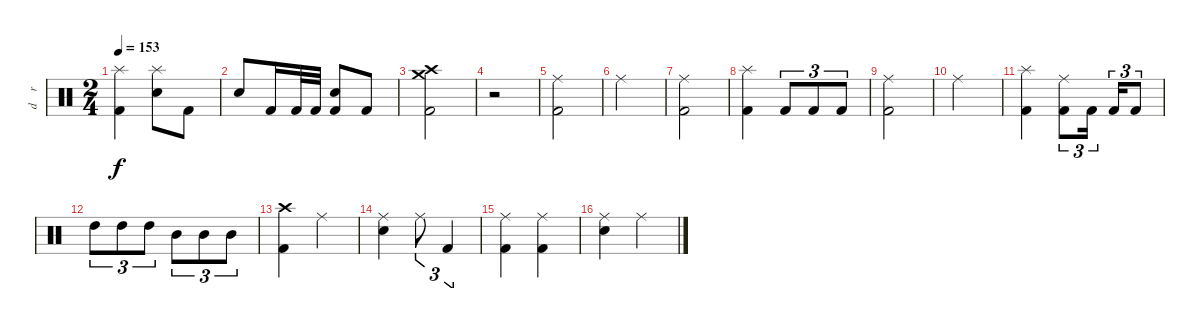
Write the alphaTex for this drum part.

\track ("d    r     u    m    s" "d    r    ") {instrument percussion}
\staff {score}
\articulation defaults
\ts (2 4)
\tempo 153
\clef neutral
\ks c
("Splash (hit)" "Kick (hit) 2").4{dy f} ("Splash (hit)" "Electric Snare (hit)").8 "Kick (hit) 2".8 |
"Electric Snare (hit)".8 "Kick (hit) 2".16 "Kick (hit) 2".32 "Kick (hit) 2".32 ("Electric Snare (hit)" "Kick (hit) 2").8 "Kick (hit) 2".8 |
("Crash high (hit)" "Crash medium (hit)" "Kick (hit) 2").2 |
r.2 |
("Ride (middle)" "Kick (hit) 2").2 |
"Ride (middle)".2 |
("Ride (middle)" "Kick (hit) 2").2 |
("Splash (hit)" "Kick (hit) 2").4 "Kick (hit) 2".8{tu (3 2)} "Kick (hit) 2".8{tu (3 2)} "Kick (hit) 2".8{tu (3 2)} |
("Ride (middle)" "Kick (hit) 2").2 |
"Ride (middle)".2 |
("Splash (hit)" "Kick (hit) 2").4 ("Ride (middle)" "Kick (hit) 2").8{tu (3 2)} "Kick (hit) 2".16{tu (3 2) beam splitsecondary} "Kick (hit) 2".16{tu (3 2)} "Kick (hit) 2".8{tu (3 2)} |
"High Tom (hit)".8{tu (3 2)} "High Tom (hit)".8{tu (3 2)} "High Tom (hit)".8{tu (3 2)} "Mid Tom (hit)".8{tu (3 2)} "Mid Tom (hit)".8{tu (3 2)} "Mid Tom (hit)".8{tu (3 2)} |
("Crash high (hit)" "Kick (hit) 2").4 "Ride (middle)".4 |
("Ride (middle)" "Electric Snare (hit)").4 "Ride (middle)".8{tu (3 2)} "Kick (hit) 2".4{tu (3 2)} |
("Ride (middle)" "Kick (hit) 2").4 ("Ride (middle)" "Kick (hit) 2").4 |
("Ride (middle)" "Electric Snare (hit)").4 "Ride (middle)".4
